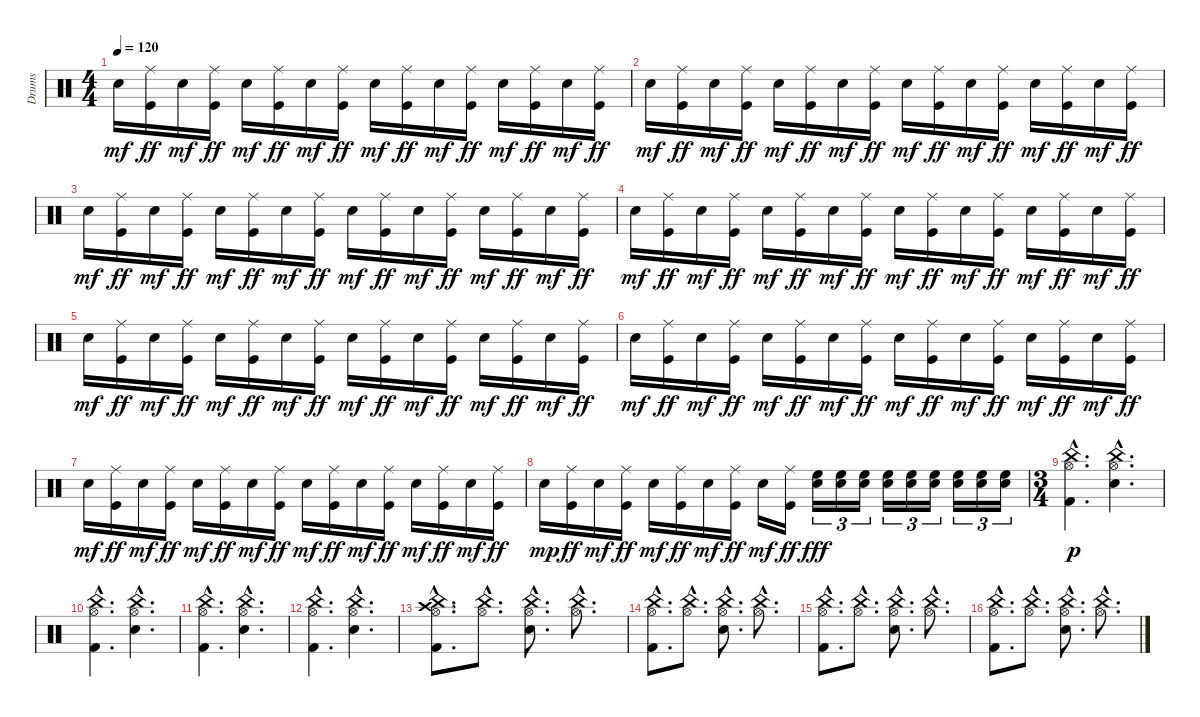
\track ("Drums" "Drums") {instrument percussion}
\staff {score}
\articulation defaults
\ts (4 4)
\tempo 120
\clef neutral
\ks c "Electric Snare (hit)".16{dy mf}
("Ride (middle)" "Kick (hit)").16{dy ff} "Electric Snare (hit)".16{dy mf} ("Ride (middle)" "Kick (hit)").16{dy ff} "Electric Snare (hit)".16{dy mf} ("Ride (middle)" "Kick (hit)").16{dy ff} "Electric Snare (hit)".16{dy mf} ("Ride (middle)" "Kick (hit)").16{dy ff} "Electric Snare (hit)".16{dy mf} ("Ride (middle)" "Kick (hit)").16{dy ff} "Electric Snare (hit)".16{dy mf} ("Ride (middle)" "Kick (hit)").16{dy ff} "Electric Snare (hit)".16{dy mf} ("Ride (middle)" "Kick (hit)").16{dy ff} "Electric Snare (hit)".16{dy mf} ("Ride (middle)" "Kick (hit)").16{dy ff} |
"Electric Snare (hit)".16{dy mf} ("Ride (middle)" "Kick (hit)").16{dy ff} "Electric Snare (hit)".16{dy mf} ("Ride (middle)" "Kick (hit)").16{dy ff} "Electric Snare (hit)".16{dy mf} ("Ride (middle)" "Kick (hit)").16{dy ff} "Electric Snare (hit)".16{dy mf} ("Ride (middle)" "Kick (hit)").16{dy ff} "Electric Snare (hit)".16{dy mf} ("Ride (middle)" "Kick (hit)").16{dy ff} "Electric Snare (hit)".16{dy mf} ("Ride (middle)" "Kick (hit)").16{dy ff} "Electric Snare (hit)".16{dy mf} ("Ride (middle)" "Kick (hit)").16{dy ff} "Electric Snare (hit)".16{dy mf} ("Ride (middle)" "Kick (hit)").16{dy ff} |
"Electric Snare (hit)".16{dy mf} ("Ride (middle)" "Kick (hit)").16{dy ff} "Electric Snare (hit)".16{dy mf} ("Ride (middle)" "Kick (hit)").16{dy ff} "Electric Snare (hit)".16{dy mf} ("Ride (middle)" "Kick (hit)").16{dy ff} "Electric Snare (hit)".16{dy mf} ("Ride (middle)" "Kick (hit)").16{dy ff} "Electric Snare (hit)".16{dy mf} ("Ride (middle)" "Kick (hit)").16{dy ff} "Electric Snare (hit)".16{dy mf} ("Ride (middle)" "Kick (hit)").16{dy ff} "Electric Snare (hit)".16{dy mf} ("Ride (middle)" "Kick (hit)").16{dy ff} "Electric Snare (hit)".16{dy mf} ("Ride (middle)" "Kick (hit)").16{dy ff} |
"Electric Snare (hit)".16{dy mf} ("Ride (middle)" "Kick (hit)").16{dy ff} "Electric Snare (hit)".16{dy mf} ("Ride (middle)" "Kick (hit)").16{dy ff} "Electric Snare (hit)".16{dy mf} ("Ride (middle)" "Kick (hit)").16{dy ff} "Electric Snare (hit)".16{dy mf} ("Ride (middle)" "Kick (hit)").16{dy ff} "Electric Snare (hit)".16{dy mf} ("Ride (middle)" "Kick (hit)").16{dy ff} "Electric Snare (hit)".16{dy mf} ("Ride (middle)" "Kick (hit)").16{dy ff} "Electric Snare (hit)".16{dy mf} ("Ride (middle)" "Kick (hit)").16{dy ff} "Electric Snare (hit)".16{dy mf} ("Ride (middle)" "Kick (hit)").16{dy ff} |
"Electric Snare (hit)".16{dy mf} ("Ride (middle)" "Kick (hit)").16{dy ff} "Electric Snare (hit)".16{dy mf} ("Ride (middle)" "Kick (hit)").16{dy ff} "Electric Snare (hit)".16{dy mf} ("Ride (middle)" "Kick (hit)").16{dy ff} "Electric Snare (hit)".16{dy mf} ("Ride (middle)" "Kick (hit)").16{dy ff} "Electric Snare (hit)".16{dy mf} ("Ride (middle)" "Kick (hit)").16{dy ff} "Electric Snare (hit)".16{dy mf} ("Ride (middle)" "Kick (hit)").16{dy ff} "Electric Snare (hit)".16{dy mf} ("Ride (middle)" "Kick (hit)").16{dy ff} "Electric Snare (hit)".16{dy mf} ("Ride (middle)" "Kick (hit)").16{dy ff} |
"Electric Snare (hit)".16{dy mf} ("Ride (middle)" "Kick (hit)").16{dy ff} "Electric Snare (hit)".16{dy mf} ("Ride (middle)" "Kick (hit)").16{dy ff} "Electric Snare (hit)".16{dy mf} ("Ride (middle)" "Kick (hit)").16{dy ff} "Electric Snare (hit)".16{dy mf} ("Ride (middle)" "Kick (hit)").16{dy ff} "Electric Snare (hit)".16{dy mf} ("Ride (middle)" "Kick (hit)").16{dy ff} "Electric Snare (hit)".16{dy mf} ("Ride (middle)" "Kick (hit)").16{dy ff} "Electric Snare (hit)".16{dy mf} ("Ride (middle)" "Kick (hit)").16{dy ff} "Electric Snare (hit)".16{dy mf} ("Ride (middle)" "Kick (hit)").16{dy ff} |
"Electric Snare (hit)".16{dy mf} ("Ride (middle)" "Kick (hit)").16{dy ff} "Electric Snare (hit)".16{dy mf} ("Ride (middle)" "Kick (hit)").16{dy ff} "Electric Snare (hit)".16{dy mf} ("Ride (middle)" "Kick (hit)").16{dy ff} "Electric Snare (hit)".16{dy mf} ("Ride (middle)" "Kick (hit)").16{dy ff} "Electric Snare (hit)".16{dy mf} ("Ride (middle)" "Kick (hit)").16{dy ff} "Electric Snare (hit)".16{dy mf} ("Ride (middle)" "Kick (hit)").16{dy ff} "Electric Snare (hit)".16{dy mf} ("Ride (middle)" "Kick (hit)").16{dy ff} "Electric Snare (hit)".16{dy mf} ("Ride (middle)" "Kick (hit)").16{dy ff} |
"Electric Snare (hit)".16{dy mp} ("Ride (middle)" "Kick (hit)").16{dy ff} "Electric Snare (hit)".16{dy mf} ("Ride (middle)" "Kick (hit)").16{dy ff} "Electric Snare (hit)".16{dy mf} ("Ride (middle)" "Kick (hit)").16{dy ff} "Electric Snare (hit)".16{dy mf} ("Ride (middle)" "Kick (hit)").16{dy ff} "Electric Snare (hit)".16{dy mf} ("Ride (middle)" "Kick (hit)").16{dy ff} ("Electric Snare (hit)" "High Floor Tom (hit)").16{tu (3 2) dy fff} ("Electric Snare (hit)" "High Floor Tom (hit)").16{tu (3 2)} ("Electric Snare (hit)" "High Floor Tom (hit)").16{tu (3 2)} ("Electric Snare (hit)" "High Floor Tom (hit)").16{tu (3 2)} ("Electric Snare (hit)" "High Floor Tom (hit)").16{tu (3 2)} ("Electric Snare (hit)" "High Floor Tom (hit)").16{tu (3 2)} ("Electric Snare (hit)" "High Floor Tom (hit)").16{tu (3 2)} ("Electric Snare (hit)" "High Floor Tom (hit)").16{tu (3 2)} ("Electric Snare (hit)" "High Floor Tom (hit)").16{tu (3 2)} |
\ts (3 4)
("China (hit)"{hac} "Hi-Hat (open)"{hac} "Kick (hit) 2"{hac}).4{d dy p} ("China (hit)"{hac} "Hi-Hat (open)"{hac} "Electric Snare (hit)"{hac}).4{d} |
("China (hit)"{hac} "Hi-Hat (open)"{hac} "Kick (hit) 2"{hac}).4{d} ("China (hit)"{hac} "Hi-Hat (open)"{hac} "Electric Snare (hit)"{hac}).4{d} |
("China (hit)"{hac} "Hi-Hat (open)"{hac} "Kick (hit) 2"{hac}).4{d} ("China (hit)"{hac} "Hi-Hat (open)"{hac} "Electric Snare (hit)"{hac}).4{d} |
("China (hit)"{hac} "Hi-Hat (open)"{hac} "Kick (hit) 2"{hac}).4{d} ("China (hit)"{hac} "Hi-Hat (open)"{hac} "Electric Snare (hit)"{hac}).4{d} |
("Crash high (hit)"{hac} "China (hit)"{hac} "Hi-Hat (open)"{hac} "Kick (hit) 2"{hac}).8{d} ("China (hit)"{hac} "Hi-Hat (open)"{hac}).8{d} ("China (hit)"{hac} "Hi-Hat (open)"{hac} "Electric Snare (hit)"{hac}).8{d} ("China (hit)"{hac} "Hi-Hat (open)"{hac}).8{d} |
("China (hit)"{hac} "Hi-Hat (open)"{hac} "Kick (hit) 2"{hac}).8{d} ("China (hit)"{hac} "Hi-Hat (open)"{hac}).8{d} ("China (hit)"{hac} "Hi-Hat (open)"{hac} "Electric Snare (hit)"{hac}).8{d} ("China (hit)"{hac} "Hi-Hat (open)"{hac}).8{d} |
("China (hit)"{hac} "Hi-Hat (open)"{hac} "Kick (hit) 2"{hac}).8{d} ("China (hit)"{hac} "Hi-Hat (open)"{hac}).8{d} ("China (hit)"{hac} "Hi-Hat (open)"{hac} "Electric Snare (hit)"{hac}).8{d} ("China (hit)"{hac} "Hi-Hat (open)"{hac}).8{d} |
("China (hit)"{hac} "Hi-Hat (open)"{hac} "Kick (hit) 2"{hac}).8{d} ("China (hit)"{hac} "Hi-Hat (open)"{hac}).8{d} ("China (hit)"{hac} "Hi-Hat (open)"{hac} "Electric Snare (hit)"{hac}).8{d} ("China (hit)"{hac} "Hi-Hat (open)"{hac}).8{d}
